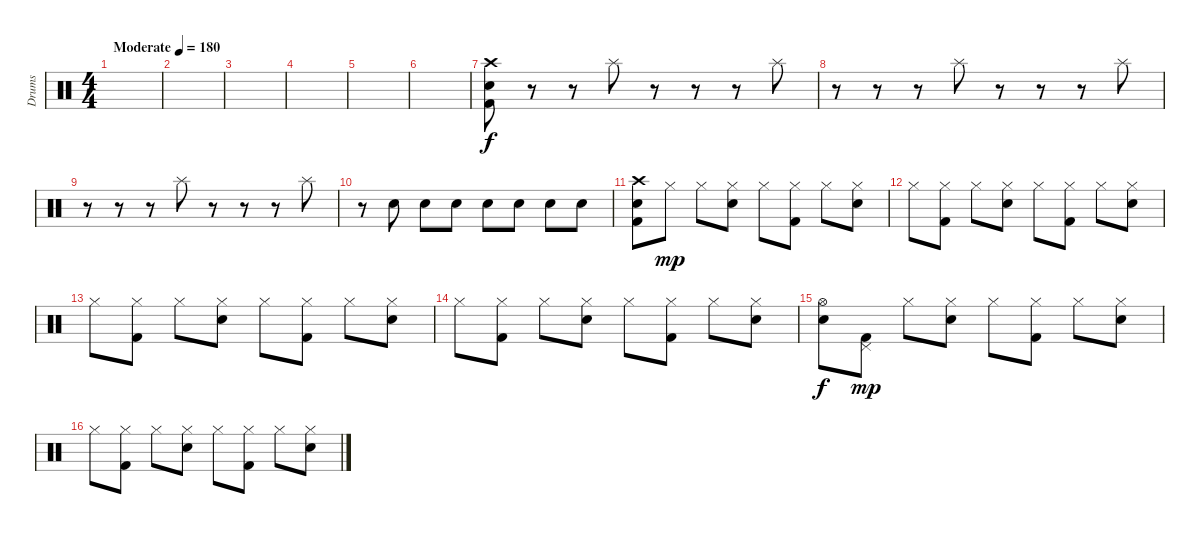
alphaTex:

\track ("Drums" "Drums") {instrument percussion}
\staff {score}
\articulation defaults
\ts (4 4)
\tempo (180 "Moderate")
\clef neutral
\ks c
|
|
|
|
|
|
("Crash high (hit)" "Electric Snare (hit)" "Kick (hit) 2").8 r.8 r.8 "Splash (hit)".8 r.8 r.8 r.8 "Splash (hit)".8 |
r.8 r.8 r.8 "Splash (hit)".8 r.8 r.8 r.8 "Splash (hit)".8 |
r.8 r.8 r.8 "Splash (hit)".8 r.8 r.8 r.8 "Splash (hit)".8 |
r.8 "Electric Snare (hit)".8 "Electric Snare (hit)".8 "Electric Snare (hit)".8 "Electric Snare (hit)".8 "Electric Snare (hit)".8 "Electric Snare (hit)".8 "Electric Snare (hit)".8 |
("Crash high (hit)" "Electric Snare (hit)" "Kick (hit) 2").8 "Hi-Hat (closed)".8{dy mp} "Hi-Hat (closed)".8 ("Hi-Hat (closed)" "Electric Snare (hit)").8 "Hi-Hat (closed)".8 ("Hi-Hat (closed)" "Kick (hit) 2").8 "Hi-Hat (closed)".8 ("Hi-Hat (closed)" "Electric Snare (hit)").8 |
"Hi-Hat (closed)".8 ("Hi-Hat (closed)" "Kick (hit) 2").8 "Hi-Hat (closed)".8 ("Hi-Hat (closed)" "Electric Snare (hit)").8 "Hi-Hat (closed)".8 ("Hi-Hat (closed)" "Kick (hit) 2").8 "Hi-Hat (closed)".8 ("Hi-Hat (closed)" "Electric Snare (hit)").8 |
"Hi-Hat (closed)".8 ("Hi-Hat (closed)" "Kick (hit) 2").8 "Hi-Hat (closed)".8 ("Hi-Hat (closed)" "Electric Snare (hit)").8 "Hi-Hat (closed)".8 ("Hi-Hat (closed)" "Kick (hit) 2").8 "Hi-Hat (closed)".8 ("Hi-Hat (closed)" "Electric Snare (hit)").8 |
"Hi-Hat (closed)".8 ("Hi-Hat (closed)" "Kick (hit) 2").8 "Hi-Hat (closed)".8 ("Hi-Hat (closed)" "Electric Snare (hit)").8 "Hi-Hat (closed)".8 ("Hi-Hat (closed)" "Kick (hit) 2").8 "Hi-Hat (closed)".8 ("Hi-Hat (closed)" "Electric Snare (hit)").8 |
("Hi-Hat (open)" "Electric Snare (hit)").8{dy f} ("Pedal Hi-Hat (hit)" "Kick (hit) 2").8{dy mp} "Hi-Hat (closed)".8 ("Hi-Hat (closed)" "Electric Snare (hit)").8 "Hi-Hat (closed)".8 ("Hi-Hat (closed)" "Kick (hit) 2").8 "Hi-Hat (closed)".8 ("Hi-Hat (closed)" "Electric Snare (hit)").8 |
"Hi-Hat (closed)".8 ("Hi-Hat (closed)" "Kick (hit) 2").8 "Hi-Hat (closed)".8 ("Hi-Hat (closed)" "Electric Snare (hit)").8 "Hi-Hat (closed)".8 ("Hi-Hat (closed)" "Kick (hit) 2").8 "Hi-Hat (closed)".8 ("Hi-Hat (closed)" "Electric Snare (hit)").8
